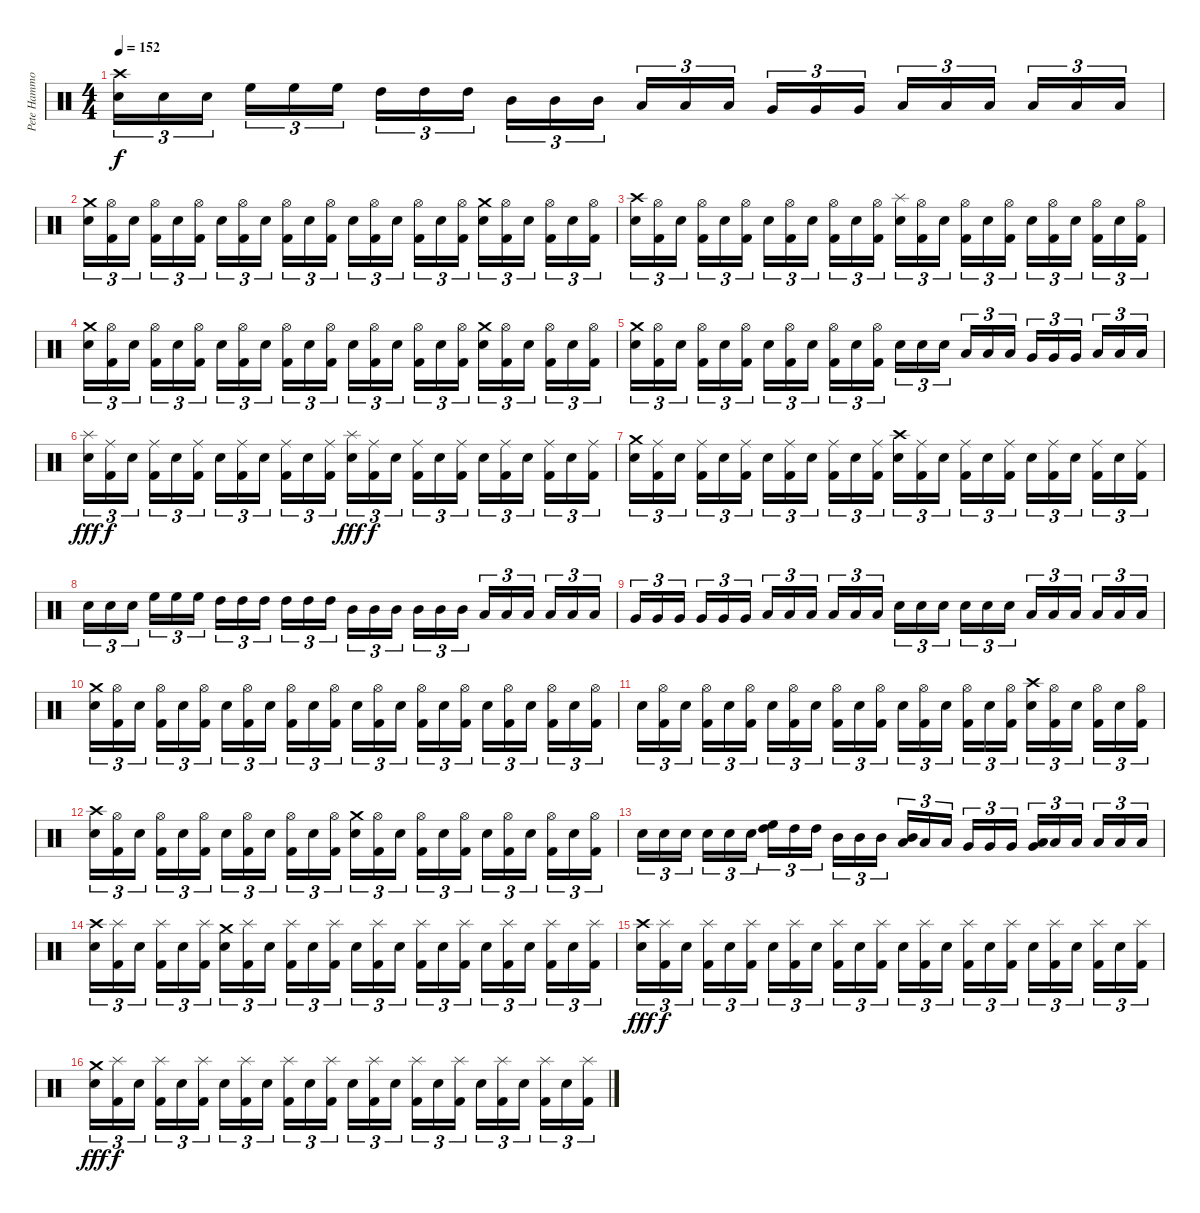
\track ("Pete Hammoura" "Pete Hammo") {instrument percussion}
\staff {score}
\articulation defaults
\ts (4 4)
\tempo 152
\clef neutral
\ks c
("Crash high (hit)" "Electric Snare (hit)").16{tu (3 2) dy f} "Electric Snare (hit)".16{tu (3 2)} "Electric Snare (hit)".16{tu (3 2)} "High Floor Tom (hit)".16{tu (3 2)} "High Floor Tom (hit)".16{tu (3 2)} "High Floor Tom (hit)".16{tu (3 2)} "High Tom (hit)".16{tu (3 2)} "High Tom (hit)".16{tu (3 2)} "High Tom (hit)".16{tu (3 2)} "Mid Tom (hit)".16{tu (3 2)} "Mid Tom (hit)".16{tu (3 2)} "Mid Tom (hit)".16{tu (3 2)} "Low Tom (hit)".16{tu (3 2)} "Low Tom (hit)".16{tu (3 2)} "Low Tom (hit)".16{tu (3 2)} "Very Low Tom (hit)".16{tu (3 2)} "Very Low Tom (hit)".16{tu (3 2)} "Very Low Tom (hit)".16{tu (3 2)} "Low Floor Tom (hit)".16{tu (3 2)} "Low Floor Tom (hit)".16{tu (3 2)} "Low Floor Tom (hit)".16{tu (3 2)} "Low Floor Tom (hit)".16{tu (3 2)} "Low Floor Tom (hit)".16{tu (3 2)} "Low Floor Tom (hit)".16{tu (3 2)} |
("Crash medium (hit)" "Electric Snare (hit)").16{tu (3 2)} ("Hi-Hat (open)" "Kick (hit) 2").16{tu (3 2)} "Electric Snare (hit)".16{tu (3 2)} ("Hi-Hat (open)" "Kick (hit) 2").16{tu (3 2)} "Electric Snare (hit)".16{tu (3 2)} ("Hi-Hat (open)" "Kick (hit) 2").16{tu (3 2)} "Electric Snare (hit)".16{tu (3 2)} ("Hi-Hat (open)" "Kick (hit) 2").16{tu (3 2)} "Electric Snare (hit)".16{tu (3 2)} ("Hi-Hat (open)" "Kick (hit) 2").16{tu (3 2)} "Electric Snare (hit)".16{tu (3 2)} ("Hi-Hat (open)" "Kick (hit) 2").16{tu (3 2)} "Electric Snare (hit)".16{tu (3 2)} ("Hi-Hat (open)" "Kick (hit) 2").16{tu (3 2)} "Electric Snare (hit)".16{tu (3 2)} ("Hi-Hat (open)" "Kick (hit) 2").16{tu (3 2)} "Electric Snare (hit)".16{tu (3 2)} ("Hi-Hat (open)" "Kick (hit) 2").16{tu (3 2)} ("Crash medium (hit)" "Electric Snare (hit)").16{tu (3 2)} ("Hi-Hat (open)" "Kick (hit) 2").16{tu (3 2)} "Electric Snare (hit)".16{tu (3 2)} ("Hi-Hat (open)" "Kick (hit) 2").16{tu (3 2)} "Electric Snare (hit)".16{tu (3 2)} ("Hi-Hat (open)" "Kick (hit) 2").16{tu (3 2)} |
("Crash high (hit)" "Electric Snare (hit)").16{tu (3 2)} ("Hi-Hat (open)" "Kick (hit) 2").16{tu (3 2)} "Electric Snare (hit)".16{tu (3 2)} ("Hi-Hat (open)" "Kick (hit) 2").16{tu (3 2)} "Electric Snare (hit)".16{tu (3 2)} ("Hi-Hat (open)" "Kick (hit) 2").16{tu (3 2)} "Electric Snare (hit)".16{tu (3 2)} ("Hi-Hat (open)" "Kick (hit) 2").16{tu (3 2)} "Electric Snare (hit)".16{tu (3 2)} ("Hi-Hat (open)" "Kick (hit) 2").16{tu (3 2)} "Electric Snare (hit)".16{tu (3 2)} ("Hi-Hat (open)" "Kick (hit) 2").16{tu (3 2)} ("Splash (hit)" "Electric Snare (hit)").16{tu (3 2)} ("Hi-Hat (open)" "Kick (hit) 2").16{tu (3 2)} "Electric Snare (hit)".16{tu (3 2)} ("Hi-Hat (open)" "Kick (hit) 2").16{tu (3 2)} "Electric Snare (hit)".16{tu (3 2)} ("Hi-Hat (open)" "Kick (hit) 2").16{tu (3 2)} "Electric Snare (hit)".16{tu (3 2)} ("Hi-Hat (open)" "Kick (hit) 2").16{tu (3 2)} "Electric Snare (hit)".16{tu (3 2)} ("Hi-Hat (open)" "Kick (hit) 2").16{tu (3 2)} "Electric Snare (hit)".16{tu (3 2)} ("Hi-Hat (open)" "Kick (hit) 2").16{tu (3 2)} |
("Crash medium (hit)" "Electric Snare (hit)").16{tu (3 2)} ("Hi-Hat (open)" "Kick (hit) 2").16{tu (3 2)} "Electric Snare (hit)".16{tu (3 2)} ("Hi-Hat (open)" "Kick (hit) 2").16{tu (3 2)} "Electric Snare (hit)".16{tu (3 2)} ("Hi-Hat (open)" "Kick (hit) 2").16{tu (3 2)} "Electric Snare (hit)".16{tu (3 2)} ("Hi-Hat (open)" "Kick (hit) 2").16{tu (3 2)} "Electric Snare (hit)".16{tu (3 2)} ("Hi-Hat (open)" "Kick (hit) 2").16{tu (3 2)} "Electric Snare (hit)".16{tu (3 2)} ("Hi-Hat (open)" "Kick (hit) 2").16{tu (3 2)} "Electric Snare (hit)".16{tu (3 2)} ("Hi-Hat (open)" "Kick (hit) 2").16{tu (3 2)} "Electric Snare (hit)".16{tu (3 2)} ("Hi-Hat (open)" "Kick (hit) 2").16{tu (3 2)} "Electric Snare (hit)".16{tu (3 2)} ("Hi-Hat (open)" "Kick (hit) 2").16{tu (3 2)} ("Crash medium (hit)" "Electric Snare (hit)").16{tu (3 2)} ("Hi-Hat (open)" "Kick (hit) 2").16{tu (3 2)} "Electric Snare (hit)".16{tu (3 2)} ("Hi-Hat (open)" "Kick (hit) 2").16{tu (3 2)} "Electric Snare (hit)".16{tu (3 2)} ("Hi-Hat (open)" "Kick (hit) 2").16{tu (3 2)} |
("Crash medium (hit)" "Electric Snare (hit)").16{tu (3 2)} ("Hi-Hat (open)" "Kick (hit) 2").16{tu (3 2)} "Electric Snare (hit)".16{tu (3 2)} ("Hi-Hat (open)" "Kick (hit) 2").16{tu (3 2)} "Electric Snare (hit)".16{tu (3 2)} ("Hi-Hat (open)" "Kick (hit) 2").16{tu (3 2)} "Electric Snare (hit)".16{tu (3 2)} ("Hi-Hat (open)" "Kick (hit) 2").16{tu (3 2)} "Electric Snare (hit)".16{tu (3 2)} ("Hi-Hat (open)" "Kick (hit) 2").16{tu (3 2)} "Electric Snare (hit)".16{tu (3 2)} ("Hi-Hat (open)" "Kick (hit) 2").16{tu (3 2)} "Electric Snare (hit)".16{tu (3 2)} "Electric Snare (hit)".16{tu (3 2)} "Electric Snare (hit)".16{tu (3 2)} "Low Tom (hit)".16{tu (3 2)} "Low Tom (hit)".16{tu (3 2)} "Low Tom (hit)".16{tu (3 2)} "Very Low Tom (hit)".16{tu (3 2)} "Very Low Tom (hit)".16{tu (3 2)} "Very Low Tom (hit)".16{tu (3 2)} "Low Floor Tom (hit)".16{tu (3 2)} "Low Floor Tom (hit)".16{tu (3 2)} "Low Floor Tom (hit)".16{tu (3 2)} |
("Splash (hit)" "Electric Snare (hit)").16{tu (3 2) dy fff} ("Ride (middle)" "Kick (hit) 2").16{tu (3 2) dy f} "Electric Snare (hit)".16{tu (3 2)} ("Ride (middle)" "Kick (hit) 2").16{tu (3 2)} "Electric Snare (hit)".16{tu (3 2)} ("Ride (middle)" "Kick (hit) 2").16{tu (3 2)} "Electric Snare (hit)".16{tu (3 2)} ("Ride (middle)" "Kick (hit) 2").16{tu (3 2)} "Electric Snare (hit)".16{tu (3 2)} ("Ride (middle)" "Kick (hit) 2").16{tu (3 2)} "Electric Snare (hit)".16{tu (3 2)} ("Ride (middle)" "Kick (hit) 2").16{tu (3 2)} ("Splash (hit)" "Electric Snare (hit)").16{tu (3 2) dy fff} ("Ride (middle)" "Kick (hit) 2").16{tu (3 2) dy f} "Electric Snare (hit)".16{tu (3 2)} ("Ride (middle)" "Kick (hit) 2").16{tu (3 2)} "Electric Snare (hit)".16{tu (3 2)} ("Ride (middle)" "Kick (hit) 2").16{tu (3 2)} "Electric Snare (hit)".16{tu (3 2)} ("Ride (middle)" "Kick (hit) 2").16{tu (3 2)} "Electric Snare (hit)".16{tu (3 2)} ("Ride (middle)" "Kick (hit) 2").16{tu (3 2)} "Electric Snare (hit)".16{tu (3 2)} ("Ride (middle)" "Kick (hit) 2").16{tu (3 2)} |
("Crash medium (hit)" "Electric Snare (hit)").16{tu (3 2)} ("Ride (middle)" "Kick (hit) 2").16{tu (3 2)} "Electric Snare (hit)".16{tu (3 2)} ("Ride (middle)" "Kick (hit) 2").16{tu (3 2)} "Electric Snare (hit)".16{tu (3 2)} ("Ride (middle)" "Kick (hit) 2").16{tu (3 2)} "Electric Snare (hit)".16{tu (3 2)} ("Ride (middle)" "Kick (hit) 2").16{tu (3 2)} "Electric Snare (hit)".16{tu (3 2)} ("Ride (middle)" "Kick (hit) 2").16{tu (3 2)} "Electric Snare (hit)".16{tu (3 2)} ("Ride (middle)" "Kick (hit) 2").16{tu (3 2)} ("Crash high (hit)" "Electric Snare (hit)").16{tu (3 2)} ("Ride (middle)" "Kick (hit) 2").16{tu (3 2)} "Electric Snare (hit)".16{tu (3 2)} ("Ride (middle)" "Kick (hit) 2").16{tu (3 2)} "Electric Snare (hit)".16{tu (3 2)} ("Ride (middle)" "Kick (hit) 2").16{tu (3 2)} "Electric Snare (hit)".16{tu (3 2)} ("Ride (middle)" "Kick (hit) 2").16{tu (3 2)} "Electric Snare (hit)".16{tu (3 2)} ("Ride (middle)" "Kick (hit) 2").16{tu (3 2)} "Electric Snare (hit)".16{tu (3 2)} ("Ride (middle)" "Kick (hit) 2").16{tu (3 2)} |
"Electric Snare (hit)".16{tu (3 2)} "Electric Snare (hit)".16{tu (3 2)} "Electric Snare (hit)".16{tu (3 2)} "High Floor Tom (hit)".16{tu (3 2)} "High Floor Tom (hit)".16{tu (3 2)} "High Floor Tom (hit)".16{tu (3 2)} "High Tom (hit)".16{tu (3 2)} "High Tom (hit)".16{tu (3 2)} "High Tom (hit)".16{tu (3 2)} "High Tom (hit)".16{tu (3 2)} "High Tom (hit)".16{tu (3 2)} "High Tom (hit)".16{tu (3 2)} "Mid Tom (hit)".16{tu (3 2)} "Mid Tom (hit)".16{tu (3 2)} "Mid Tom (hit)".16{tu (3 2)} "Mid Tom (hit)".16{tu (3 2)} "Mid Tom (hit)".16{tu (3 2)} "Mid Tom (hit)".16{tu (3 2)} "Low Tom (hit)".16{tu (3 2)} "Low Tom (hit)".16{tu (3 2)} "Low Tom (hit)".16{tu (3 2)} "Low Tom (hit)".16{tu (3 2)} "Low Tom (hit)".16{tu (3 2)} "Low Tom (hit)".16{tu (3 2)} |
"Very Low Tom (hit)".16{tu (3 2)} "Very Low Tom (hit)".16{tu (3 2)} "Very Low Tom (hit)".16{tu (3 2)} "Very Low Tom (hit)".16{tu (3 2)} "Very Low Tom (hit)".16{tu (3 2)} "Very Low Tom (hit)".16{tu (3 2)} "Low Floor Tom (hit)".16{tu (3 2)} "Low Floor Tom (hit)".16{tu (3 2)} "Low Floor Tom (hit)".16{tu (3 2)} "Low Floor Tom (hit)".16{tu (3 2)} "Low Floor Tom (hit)".16{tu (3 2)} "Low Floor Tom (hit)".16{tu (3 2)} "Electric Snare (hit)".16{tu (3 2)} "Electric Snare (hit)".16{tu (3 2)} "Electric Snare (hit)".16{tu (3 2)} "Electric Snare (hit)".16{tu (3 2)} "Electric Snare (hit)".16{tu (3 2)} "Electric Snare (hit)".16{tu (3 2)} "Low Floor Tom (hit)".16{tu (3 2)} "Low Floor Tom (hit)".16{tu (3 2)} "Low Floor Tom (hit)".16{tu (3 2)} "Low Floor Tom (hit)".16{tu (3 2)} "Low Floor Tom (hit)".16{tu (3 2)} "Low Floor Tom (hit)".16{tu (3 2)} |
("Crash medium (hit)" "Electric Snare (hit)").16{tu (3 2)} ("Hi-Hat (open)" "Kick (hit) 2").16{tu (3 2)} "Electric Snare (hit)".16{tu (3 2)} ("Hi-Hat (open)" "Kick (hit) 2").16{tu (3 2)} "Electric Snare (hit)".16{tu (3 2)} ("Hi-Hat (open)" "Kick (hit) 2").16{tu (3 2)} "Electric Snare (hit)".16{tu (3 2)} ("Hi-Hat (open)" "Kick (hit) 2").16{tu (3 2)} "Electric Snare (hit)".16{tu (3 2)} ("Hi-Hat (open)" "Kick (hit) 2").16{tu (3 2)} "Electric Snare (hit)".16{tu (3 2)} ("Hi-Hat (open)" "Kick (hit) 2").16{tu (3 2)} "Electric Snare (hit)".16{tu (3 2)} ("Hi-Hat (open)" "Kick (hit) 2").16{tu (3 2)} "Electric Snare (hit)".16{tu (3 2)} ("Hi-Hat (open)" "Kick (hit) 2").16{tu (3 2)} "Electric Snare (hit)".16{tu (3 2)} ("Hi-Hat (open)" "Kick (hit) 2").16{tu (3 2)} "Electric Snare (hit)".16{tu (3 2)} ("Hi-Hat (open)" "Kick (hit) 2").16{tu (3 2)} "Electric Snare (hit)".16{tu (3 2)} ("Hi-Hat (open)" "Kick (hit) 2").16{tu (3 2)} "Electric Snare (hit)".16{tu (3 2)} ("Hi-Hat (open)" "Kick (hit) 2").16{tu (3 2)} |
"Electric Snare (hit)".16{tu (3 2)} ("Hi-Hat (open)" "Kick (hit) 2").16{tu (3 2)} "Electric Snare (hit)".16{tu (3 2)} ("Hi-Hat (open)" "Kick (hit) 2").16{tu (3 2)} "Electric Snare (hit)".16{tu (3 2)} ("Hi-Hat (open)" "Kick (hit) 2").16{tu (3 2)} "Electric Snare (hit)".16{tu (3 2)} ("Hi-Hat (open)" "Kick (hit) 2").16{tu (3 2)} "Electric Snare (hit)".16{tu (3 2)} ("Hi-Hat (open)" "Kick (hit) 2").16{tu (3 2)} "Electric Snare (hit)".16{tu (3 2)} ("Hi-Hat (open)" "Kick (hit) 2").16{tu (3 2)} "Electric Snare (hit)".16{tu (3 2)} ("Hi-Hat (open)" "Kick (hit) 2").16{tu (3 2)} "Electric Snare (hit)".16{tu (3 2)} ("Hi-Hat (open)" "Kick (hit) 2").16{tu (3 2)} "Electric Snare (hit)".16{tu (3 2)} ("Hi-Hat (open)" "Kick (hit) 2").16{tu (3 2)} ("Crash high (hit)" "Electric Snare (hit)").16{tu (3 2)} ("Hi-Hat (open)" "Kick (hit) 2").16{tu (3 2)} "Electric Snare (hit)".16{tu (3 2)} ("Hi-Hat (open)" "Kick (hit) 2").16{tu (3 2)} "Electric Snare (hit)".16{tu (3 2)} ("Hi-Hat (open)" "Kick (hit) 2").16{tu (3 2)} |
("Crash high (hit)" "Electric Snare (hit)").16{tu (3 2)} ("Hi-Hat (open)" "Kick (hit) 2").16{tu (3 2)} "Electric Snare (hit)".16{tu (3 2)} ("Hi-Hat (open)" "Kick (hit) 2").16{tu (3 2)} "Electric Snare (hit)".16{tu (3 2)} ("Hi-Hat (open)" "Kick (hit) 2").16{tu (3 2)} "Electric Snare (hit)".16{tu (3 2)} ("Hi-Hat (open)" "Kick (hit) 2").16{tu (3 2)} "Electric Snare (hit)".16{tu (3 2)} ("Hi-Hat (open)" "Kick (hit) 2").16{tu (3 2)} "Electric Snare (hit)".16{tu (3 2)} ("Hi-Hat (open)" "Kick (hit) 2").16{tu (3 2)} ("Crash medium (hit)" "Electric Snare (hit)").16{tu (3 2)} ("Hi-Hat (open)" "Kick (hit) 2").16{tu (3 2)} "Electric Snare (hit)".16{tu (3 2)} ("Hi-Hat (open)" "Kick (hit) 2").16{tu (3 2)} "Electric Snare (hit)".16{tu (3 2)} ("Hi-Hat (open)" "Kick (hit) 2").16{tu (3 2)} "Electric Snare (hit)".16{tu (3 2)} ("Hi-Hat (open)" "Kick (hit) 2").16{tu (3 2)} "Electric Snare (hit)".16{tu (3 2)} ("Hi-Hat (open)" "Kick (hit) 2").16{tu (3 2)} "Electric Snare (hit)".16{tu (3 2)} ("Hi-Hat (open)" "Kick (hit) 2").16{tu (3 2)} |
"Electric Snare (hit)".16{tu (3 2)} "Electric Snare (hit)".16{tu (3 2)} "Electric Snare (hit)".16{tu (3 2)} "Electric Snare (hit)".16{tu (3 2)} "Electric Snare (hit)".16{tu (3 2)} "Electric Snare (hit)".16{tu (3 2)} ("High Floor Tom (hit)" "High Tom (hit)").16{tu (3 2)} "High Tom (hit)".16{tu (3 2)} "High Tom (hit)".16{tu (3 2)} "Mid Tom (hit)".16{tu (3 2)} "Mid Tom (hit)".16{tu (3 2)} "Mid Tom (hit)".16{tu (3 2)} ("Mid Tom (hit)" "Low Tom (hit)").16{tu (3 2)} "Low Tom (hit)".16{tu (3 2)} "Low Tom (hit)".16{tu (3 2)} "Very Low Tom (hit)".16{tu (3 2)} "Very Low Tom (hit)".16{tu (3 2)} "Very Low Tom (hit)".16{tu (3 2)} ("Very Low Tom (hit)" "Low Floor Tom (hit)").16{tu (3 2)} "Low Floor Tom (hit)".16{tu (3 2)} "Low Floor Tom (hit)".16{tu (3 2)} "Low Floor Tom (hit)".16{tu (3 2)} "Low Floor Tom (hit)".16{tu (3 2)} "Low Floor Tom (hit)".16{tu (3 2)} |
("Crash high (hit)" "Electric Snare (hit)").16{tu (3 2)} ("Splash (hit)" "Kick (hit) 2").16{tu (3 2)} "Electric Snare (hit)".16{tu (3 2)} ("Splash (hit)" "Kick (hit) 2").16{tu (3 2)} "Electric Snare (hit)".16{tu (3 2)} ("Splash (hit)" "Kick (hit) 2").16{tu (3 2)} ("Crash medium (hit)" "Electric Snare (hit)").16{tu (3 2)} ("Splash (hit)" "Kick (hit) 2").16{tu (3 2)} "Electric Snare (hit)".16{tu (3 2)} ("Splash (hit)" "Kick (hit) 2").16{tu (3 2)} "Electric Snare (hit)".16{tu (3 2)} ("Splash (hit)" "Kick (hit) 2").16{tu (3 2)} "Electric Snare (hit)".16{tu (3 2)} ("Splash (hit)" "Kick (hit) 2").16{tu (3 2)} "Electric Snare (hit)".16{tu (3 2)} ("Splash (hit)" "Kick (hit) 2").16{tu (3 2)} "Electric Snare (hit)".16{tu (3 2)} ("Splash (hit)" "Kick (hit) 2").16{tu (3 2)} "Electric Snare (hit)".16{tu (3 2)} ("Splash (hit)" "Kick (hit) 2").16{tu (3 2)} "Electric Snare (hit)".16{tu (3 2)} ("Splash (hit)" "Kick (hit) 2").16{tu (3 2)} "Electric Snare (hit)".16{tu (3 2)} ("Splash (hit)" "Kick (hit) 2").16{tu (3 2)} |
("Crash high (hit)" "Electric Snare (hit)").16{tu (3 2) dy fff} ("Splash (hit)" "Kick (hit) 2").16{tu (3 2) dy f} "Electric Snare (hit)".16{tu (3 2)} ("Splash (hit)" "Kick (hit) 2").16{tu (3 2)} "Electric Snare (hit)".16{tu (3 2)} ("Splash (hit)" "Kick (hit) 2").16{tu (3 2)} "Electric Snare (hit)".16{tu (3 2)} ("Splash (hit)" "Kick (hit) 2").16{tu (3 2)} "Electric Snare (hit)".16{tu (3 2)} ("Splash (hit)" "Kick (hit) 2").16{tu (3 2)} "Electric Snare (hit)".16{tu (3 2)} ("Splash (hit)" "Kick (hit) 2").16{tu (3 2)} "Electric Snare (hit)".16{tu (3 2)} ("Splash (hit)" "Kick (hit) 2").16{tu (3 2)} "Electric Snare (hit)".16{tu (3 2)} ("Splash (hit)" "Kick (hit) 2").16{tu (3 2)} "Electric Snare (hit)".16{tu (3 2)} ("Splash (hit)" "Kick (hit) 2").16{tu (3 2)} "Electric Snare (hit)".16{tu (3 2)} ("Splash (hit)" "Kick (hit) 2").16{tu (3 2)} "Electric Snare (hit)".16{tu (3 2)} ("Splash (hit)" "Kick (hit) 2").16{tu (3 2)} "Electric Snare (hit)".16{tu (3 2)} ("Splash (hit)" "Kick (hit) 2").16{tu (3 2)} |
("Crash medium (hit)" "Electric Snare (hit)").16{tu (3 2) dy fff} ("Splash (hit)" "Kick (hit) 2").16{tu (3 2) dy f} "Electric Snare (hit)".16{tu (3 2)} ("Splash (hit)" "Kick (hit) 2").16{tu (3 2)} "Electric Snare (hit)".16{tu (3 2)} ("Splash (hit)" "Kick (hit) 2").16{tu (3 2)} "Electric Snare (hit)".16{tu (3 2)} ("Splash (hit)" "Kick (hit) 2").16{tu (3 2)} "Electric Snare (hit)".16{tu (3 2)} ("Splash (hit)" "Kick (hit) 2").16{tu (3 2)} "Electric Snare (hit)".16{tu (3 2)} ("Splash (hit)" "Kick (hit) 2").16{tu (3 2)} "Electric Snare (hit)".16{tu (3 2)} ("Splash (hit)" "Kick (hit) 2").16{tu (3 2)} "Electric Snare (hit)".16{tu (3 2)} ("Splash (hit)" "Kick (hit) 2").16{tu (3 2)} "Electric Snare (hit)".16{tu (3 2)} ("Splash (hit)" "Kick (hit) 2").16{tu (3 2)} "Electric Snare (hit)".16{tu (3 2)} ("Splash (hit)" "Kick (hit) 2").16{tu (3 2)} "Electric Snare (hit)".16{tu (3 2)} ("Splash (hit)" "Kick (hit) 2").16{tu (3 2)} "Electric Snare (hit)".16{tu (3 2)} ("Splash (hit)" "Kick (hit) 2").16{tu (3 2)}
